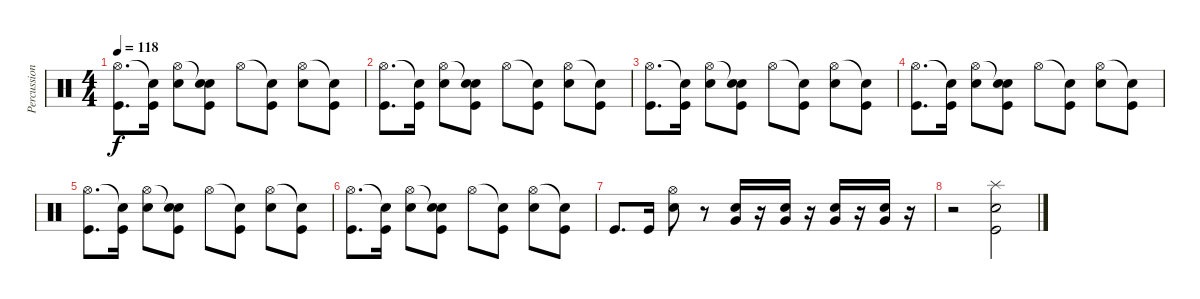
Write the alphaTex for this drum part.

\track ("Percussion 1" "Percussion") {instrument percussion}
\staff {score}
\articulation defaults
\ts (4 4)
\tempo 118
\clef neutral
\ks c
("Hi-Hat (open)" "Kick (hit)").8{d dy f} ("Snare (hit)"{t} "Kick (hit)").16 ("Hi-Hat (open)" "Electric Snare (hit)").8 ("Snare (hit)"{t} "Electric Snare (hit)" "Kick (hit)").8 "Hi-Hat (open)".8 ("Snare (hit)"{t} "Kick (hit)").8 ("Hi-Hat (open)" "Electric Snare (hit)").8 ("Snare (hit)"{t} "Kick (hit)").8 |
("Hi-Hat (open)" "Kick (hit)").8{d} ("Snare (hit)"{t} "Kick (hit)").16 ("Hi-Hat (open)" "Electric Snare (hit)").8 ("Snare (hit)"{t} "Electric Snare (hit)" "Kick (hit)").8 "Hi-Hat (open)".8 ("Snare (hit)"{t} "Kick (hit)").8 ("Hi-Hat (open)" "Electric Snare (hit)").8 ("Snare (hit)"{t} "Kick (hit)").8 |
("Hi-Hat (open)" "Kick (hit)").8{d} ("Snare (hit)"{t} "Kick (hit)").16 ("Hi-Hat (open)" "Electric Snare (hit)").8 ("Snare (hit)"{t} "Electric Snare (hit)" "Kick (hit)").8 "Hi-Hat (open)".8 ("Snare (hit)"{t} "Kick (hit)").8 ("Hi-Hat (open)" "Electric Snare (hit)").8 ("Snare (hit)"{t} "Kick (hit)").8 |
("Hi-Hat (open)" "Kick (hit)").8{d} ("Snare (hit)"{t} "Kick (hit)").16 ("Hi-Hat (open)" "Electric Snare (hit)").8 ("Snare (hit)"{t} "Electric Snare (hit)" "Kick (hit)").8 "Hi-Hat (open)".8 ("Snare (hit)"{t} "Kick (hit)").8 ("Hi-Hat (open)" "Electric Snare (hit)").8 ("Snare (hit)"{t} "Kick (hit)").8 |
("Hi-Hat (open)" "Kick (hit)").8{d} ("Snare (hit)"{t} "Kick (hit)").16 ("Hi-Hat (open)" "Electric Snare (hit)").8 ("Snare (hit)"{t} "Electric Snare (hit)" "Kick (hit)").8 "Hi-Hat (open)".8 ("Snare (hit)"{t} "Kick (hit)").8 ("Hi-Hat (open)" "Electric Snare (hit)").8 ("Snare (hit)"{t} "Kick (hit)").8 |
("Hi-Hat (open)" "Kick (hit)").8{d} ("Snare (hit)"{t} "Kick (hit)").16 ("Hi-Hat (open)" "Electric Snare (hit)").8 ("Snare (hit)"{t} "Electric Snare (hit)" "Kick (hit)").8 "Hi-Hat (open)".8 ("Snare (hit)"{t} "Kick (hit)").8 ("Hi-Hat (open)" "Electric Snare (hit)").8 ("Snare (hit)"{t} "Kick (hit)").8 |
"Kick (hit)".8{d} "Kick (hit)".16 ("Electric Snare (hit)" "Hi-Hat (open)").8 r.8 ("Electric Snare (hit)" "Very Low Tom (hit)").16 r.16 ("Electric Snare (hit)" "Very Low Tom (hit)").16 r.16 ("Electric Snare (hit)" "Very Low Tom (hit)").16 r.16 ("Electric Snare (hit)" "Very Low Tom (hit)").16 r.16 |
r.2 ("Splash (hit)" "Electric Snare (hit)" "Kick (hit)").2
